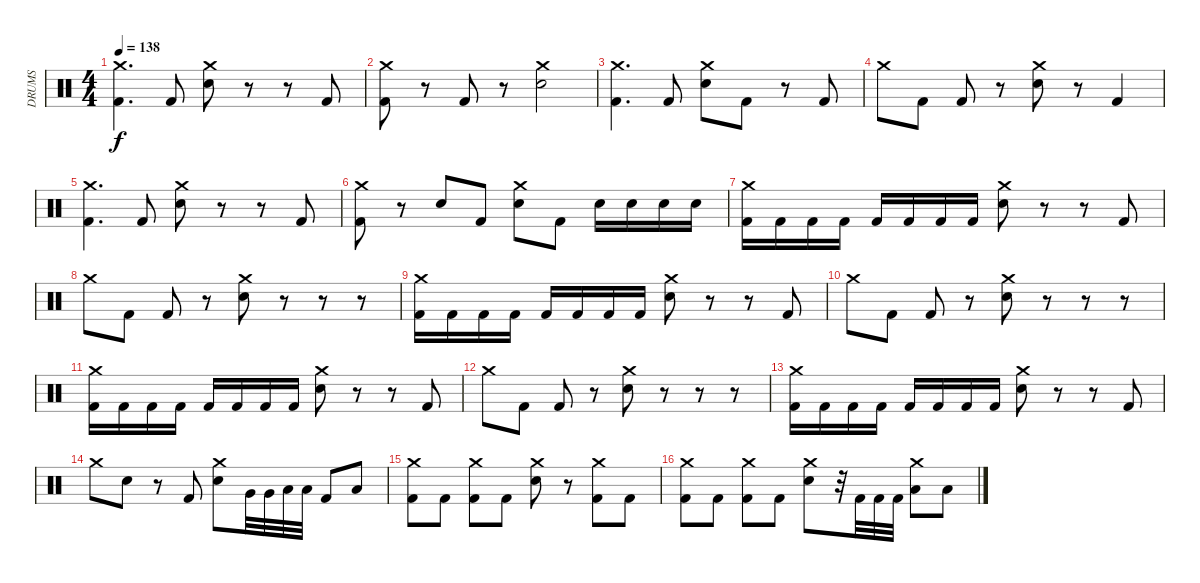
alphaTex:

\track ("DRUMS" "DRUMS") {instrument percussion}
\staff {score}
\articulation defaults
\ts (4 4)
\tempo 138
\clef neutral
\ks c
("Crash medium (hit)" "Kick (hit) 2").4{d dy f} "Kick (hit) 2".8 ("Crash medium (hit)" "Electric Snare (hit)").8 r.8 r.8 "Kick (hit) 2".8 |
("Crash medium (hit)" "Kick (hit) 2").8 r.8 "Kick (hit) 2".8 r.8 ("Crash medium (hit)" "Electric Snare (hit)").2 |
("Crash medium (hit)" "Kick (hit) 2").4{d} "Kick (hit) 2".8 ("Crash medium (hit)" "Electric Snare (hit)").8 "Kick (hit) 2".8 r.8 "Kick (hit) 2".8 |
"Crash medium (hit)".8 "Kick (hit) 2".8 "Kick (hit) 2".8 r.8 ("Crash medium (hit)" "Electric Snare (hit)").8 r.8 "Kick (hit) 2".4 |
("Crash medium (hit)" "Kick (hit) 2").4{d} "Kick (hit) 2".8 ("Crash medium (hit)" "Electric Snare (hit)").8 r.8 r.8 "Kick (hit) 2".8 |
("Crash medium (hit)" "Kick (hit) 2").8 r.8 "Electric Snare (hit)".8 "Kick (hit) 2".8 ("Crash medium (hit)" "Electric Snare (hit)").8 "Kick (hit) 2".8 "Electric Snare (hit)".16 "Electric Snare (hit)".16 "Electric Snare (hit)".16 "Electric Snare (hit)".16 |
("Crash medium (hit)" "Kick (hit) 2").16 "Kick (hit) 2".16 "Kick (hit) 2".16 "Kick (hit) 2".16 "Kick (hit) 2".16 "Kick (hit) 2".16 "Kick (hit) 2".16 "Kick (hit) 2".16 ("Crash medium (hit)" "Electric Snare (hit)").8 r.8 r.8 "Kick (hit) 2".8 |
"Crash medium (hit)".8 "Kick (hit) 2".8 "Kick (hit) 2".8 r.8 ("Crash medium (hit)" "Electric Snare (hit)").8 r.8 r.8 r.8 |
("Crash medium (hit)" "Kick (hit) 2").16 "Kick (hit) 2".16 "Kick (hit) 2".16 "Kick (hit) 2".16 "Kick (hit) 2".16 "Kick (hit) 2".16 "Kick (hit) 2".16 "Kick (hit) 2".16 ("Crash medium (hit)" "Electric Snare (hit)").8 r.8 r.8 "Kick (hit) 2".8 |
"Crash medium (hit)".8 "Kick (hit) 2".8 "Kick (hit) 2".8 r.8 ("Crash medium (hit)" "Electric Snare (hit)").8 r.8 r.8 r.8 |
("Crash medium (hit)" "Kick (hit) 2").16 "Kick (hit) 2".16 "Kick (hit) 2".16 "Kick (hit) 2".16 "Kick (hit) 2".16 "Kick (hit) 2".16 "Kick (hit) 2".16 "Kick (hit) 2".16 ("Crash medium (hit)" "Electric Snare (hit)").8 r.8 r.8 "Kick (hit) 2".8 |
"Crash medium (hit)".8 "Kick (hit) 2".8 "Kick (hit) 2".8 r.8 ("Crash medium (hit)" "Electric Snare (hit)").8 r.8 r.8 r.8 |
("Crash medium (hit)" "Kick (hit) 2").16 "Kick (hit) 2".16 "Kick (hit) 2".16 "Kick (hit) 2".16 "Kick (hit) 2".16 "Kick (hit) 2".16 "Kick (hit) 2".16 "Kick (hit) 2".16 ("Crash medium (hit)" "Electric Snare (hit)").8 r.8 r.8 "Kick (hit) 2".8 |
"Crash medium (hit)".8 "Electric Snare (hit)".8 r.8 "Kick (hit) 2".8 ("Crash medium (hit)" "Electric Snare (hit)").8 "Very Low Tom (hit)".32 "Very Low Tom (hit)".32 "Low Floor Tom (hit)".32 "Low Floor Tom (hit)".32 "Kick (hit) 2".8 "Low Floor Tom (hit)".8 |
("Crash medium (hit)" "Kick (hit) 2").8 "Kick (hit) 2".8 ("Crash medium (hit)" "Kick (hit) 2").8 "Kick (hit) 2".8 ("Crash medium (hit)" "Electric Snare (hit)").8 r.8 ("Crash medium (hit)" "Kick (hit) 2").8 "Kick (hit) 2".8 |
("Crash medium (hit)" "Kick (hit) 2").8 "Kick (hit) 2".8 ("Crash medium (hit)" "Kick (hit) 2").8 "Kick (hit) 2".8 ("Crash medium (hit)" "Electric Snare (hit)").8 r.32 "Kick (hit) 2".32 "Kick (hit) 2".32 "Kick (hit) 2".32 ("Crash medium (hit)" "Low Floor Tom (hit)").8 "Low Floor Tom (hit)".8
